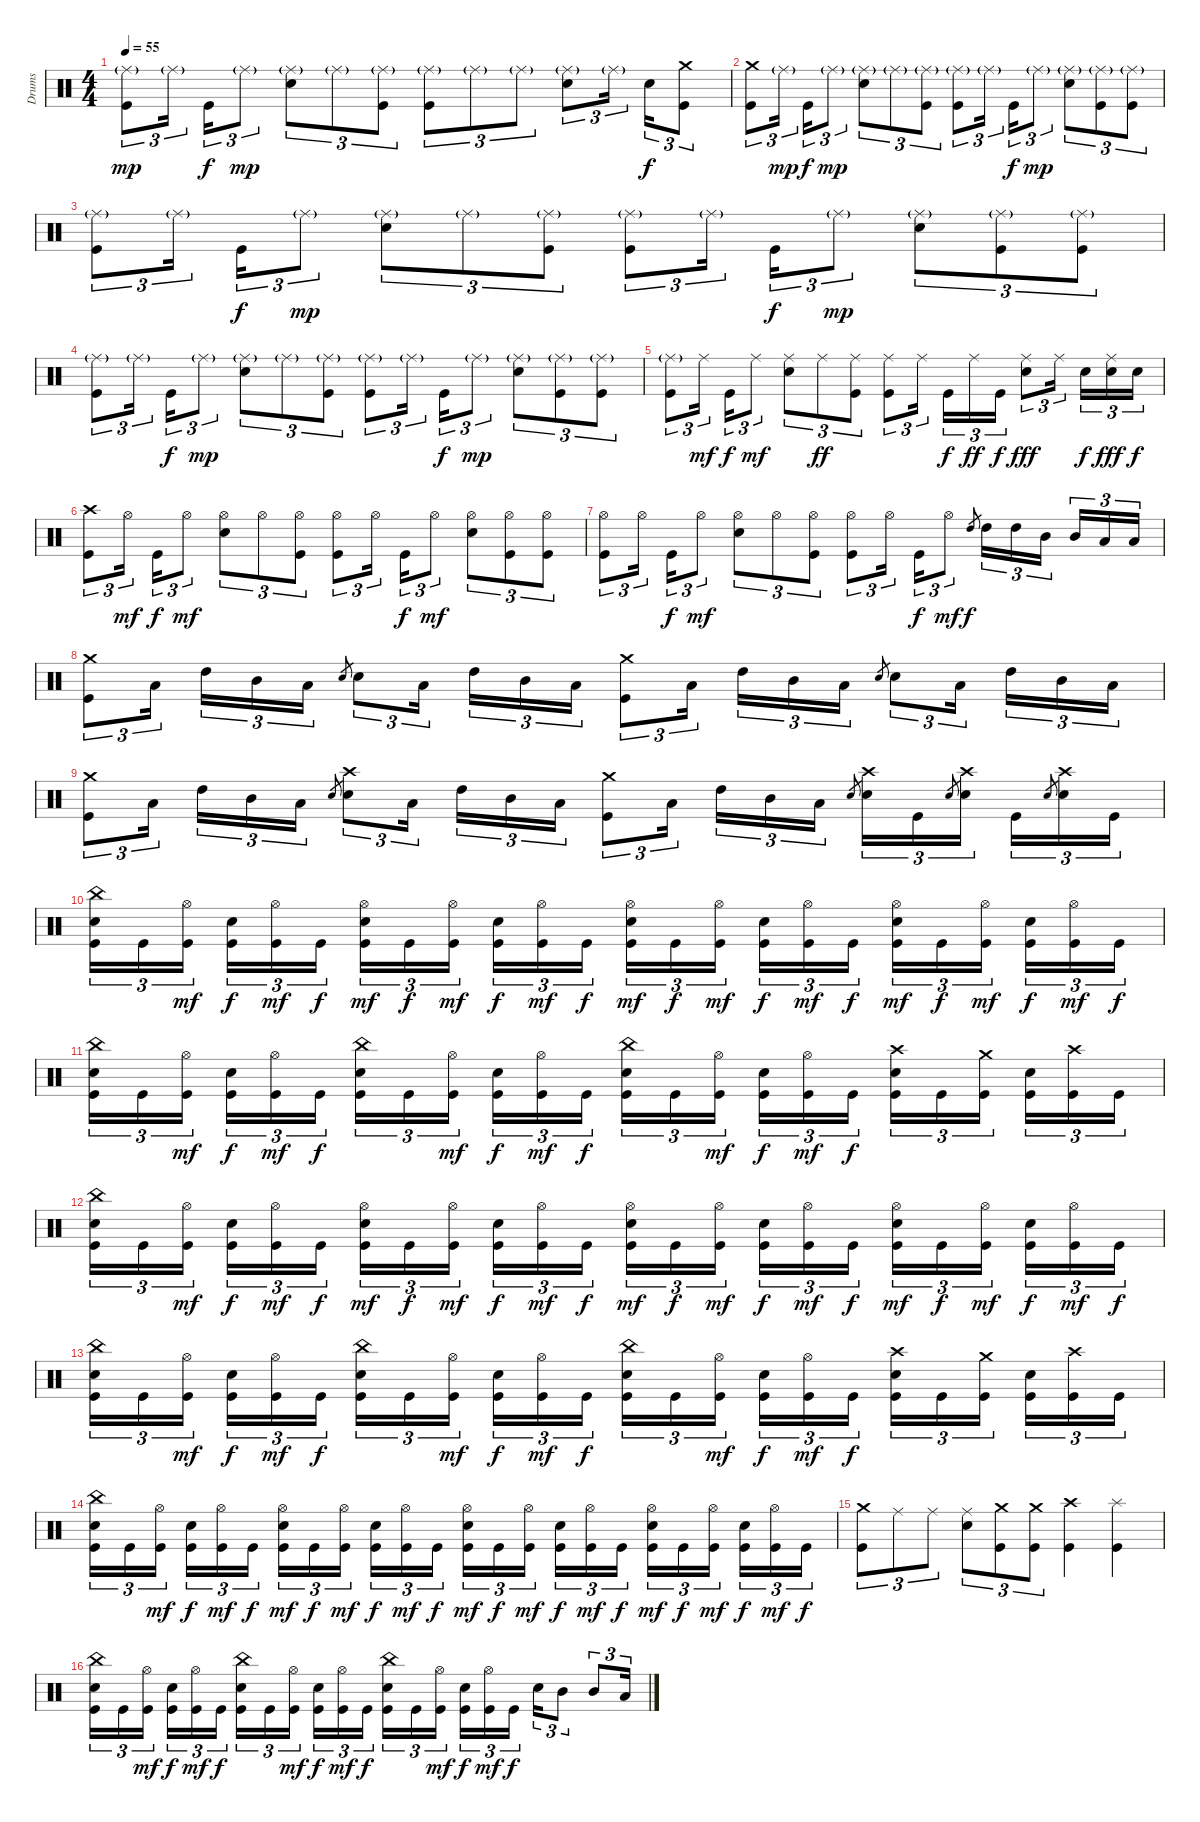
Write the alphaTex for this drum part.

\track ("Drums" "Drums") {instrument percussion}
\staff {score}
\articulation defaults
\ts (4 4)
\tempo 55
\clef neutral
\ks c
("Ride (middle)"{g} "Kick (hit)").8{tu (3 2) dy mp} "Ride (middle)"{g}.16{tu (3 2)} "Kick (hit)".16{tu (3 2) dy f} "Ride (middle)"{g}.8{tu (3 2) dy mp} ("Ride (middle)"{g} "Electric Snare (hit)").8{tu (3 2)} "Ride (middle)"{g}.8{tu (3 2)} ("Ride (middle)"{g} "Kick (hit)").8{tu (3 2)} ("Ride (middle)"{g} "Kick (hit)").8{tu (3 2)} "Ride (middle)"{g}.8{tu (3 2)} "Ride (middle)"{g}.8{tu (3 2)} ("Ride (middle)"{g} "Electric Snare (hit)").8{tu (3 2)} "Ride (middle)"{g}.16{tu (3 2)} "Electric Snare (hit)".16{tu (3 2) dy f} ("Crash medium (hit)" "Kick (hit)").8{tu (3 2)} |
("Crash medium (hit)" "Kick (hit)").8{tu (3 2)} "Ride (middle)"{g}.16{tu (3 2) dy mp} "Kick (hit)".16{tu (3 2) dy f} "Ride (middle)"{g}.8{tu (3 2) dy mp} ("Ride (middle)"{g} "Electric Snare (hit)").8{tu (3 2)} "Ride (middle)"{g}.8{tu (3 2)} ("Ride (middle)"{g} "Kick (hit)").8{tu (3 2)} ("Ride (middle)"{g} "Kick (hit)").8{tu (3 2)} "Ride (middle)"{g}.16{tu (3 2)} "Kick (hit)".16{tu (3 2) dy f} "Ride (middle)"{g}.8{tu (3 2) dy mp} ("Ride (middle)"{g} "Electric Snare (hit)").8{tu (3 2)} ("Ride (middle)"{g} "Kick (hit)").8{tu (3 2)} ("Ride (middle)"{g} "Kick (hit)").8{tu (3 2)} |
("Ride (middle)"{g} "Kick (hit)").8{tu (3 2)} "Ride (middle)"{g}.16{tu (3 2)} "Kick (hit)".16{tu (3 2) dy f} "Ride (middle)"{g}.8{tu (3 2) dy mp} ("Ride (middle)"{g} "Electric Snare (hit)").8{tu (3 2)} "Ride (middle)"{g}.8{tu (3 2)} ("Ride (middle)"{g} "Kick (hit)").8{tu (3 2)} ("Ride (middle)"{g} "Kick (hit)").8{tu (3 2)} "Ride (middle)"{g}.16{tu (3 2)} "Kick (hit)".16{tu (3 2) dy f} "Ride (middle)"{g}.8{tu (3 2) dy mp} ("Ride (middle)"{g} "Electric Snare (hit)").8{tu (3 2)} ("Ride (middle)"{g} "Kick (hit)").8{tu (3 2)} ("Ride (middle)"{g} "Kick (hit)").8{tu (3 2)} |
("Ride (middle)"{g} "Kick (hit)").8{tu (3 2)} "Ride (middle)"{g}.16{tu (3 2)} "Kick (hit)".16{tu (3 2) dy f} "Ride (middle)"{g}.8{tu (3 2) dy mp} ("Ride (middle)"{g} "Electric Snare (hit)").8{tu (3 2)} "Ride (middle)"{g}.8{tu (3 2)} ("Ride (middle)"{g} "Kick (hit)").8{tu (3 2)} ("Ride (middle)"{g} "Kick (hit)").8{tu (3 2)} "Ride (middle)"{g}.16{tu (3 2)} "Kick (hit)".16{tu (3 2) dy f} "Ride (middle)"{g}.8{tu (3 2) dy mp} ("Ride (middle)"{g} "Electric Snare (hit)").8{tu (3 2)} ("Ride (middle)"{g} "Kick (hit)").8{tu (3 2)} ("Ride (middle)"{g} "Kick (hit)").8{tu (3 2)} |
("Ride (middle)"{g} "Kick (hit)").8{tu (3 2)} "Ride (middle)".16{tu (3 2) dy mf} "Kick (hit)".16{tu (3 2) dy f} "Ride (middle)".8{tu (3 2) dy mf} ("Ride (middle)" "Electric Snare (hit)").8{tu (3 2)} "Ride (middle)".8{tu (3 2) dy ff} ("Ride (middle)" "Kick (hit)").8{tu (3 2)} ("Ride (middle)" "Kick (hit)").8{tu (3 2)} "Ride (middle)".16{tu (3 2)} "Kick (hit)".16{tu (3 2) dy f} "Ride (middle)".16{tu (3 2) dy ff} "Kick (hit)".16{tu (3 2) dy f} ("Ride (middle)" "Electric Snare (hit)").8{tu (3 2) dy fff} "Ride (middle)".16{tu (3 2)} "Electric Snare (hit)".16{tu (3 2) dy f} ("Ride (middle)" "Electric Snare (hit)").16{tu (3 2) dy fff} "Electric Snare (hit)".16{tu (3 2) dy f} |
("Crash high (hit)" "Kick (hit)").8{tu (3 2)} "Hi-Hat (open)".16{tu (3 2) dy mf} "Kick (hit)".16{tu (3 2) dy f} "Hi-Hat (open)".8{tu (3 2) dy mf} ("Hi-Hat (open)" "Electric Snare (hit)").8{tu (3 2)} "Hi-Hat (open)".8{tu (3 2)} ("Hi-Hat (open)" "Kick (hit)").8{tu (3 2)} ("Hi-Hat (open)" "Kick (hit)").8{tu (3 2)} "Hi-Hat (open)".16{tu (3 2)} "Kick (hit)".16{tu (3 2) dy f} "Hi-Hat (open)".8{tu (3 2) dy mf} ("Hi-Hat (open)" "Electric Snare (hit)").8{tu (3 2)} ("Hi-Hat (open)" "Kick (hit)").8{tu (3 2)} ("Hi-Hat (open)" "Kick (hit)").8{tu (3 2)} |
("Hi-Hat (open)" "Kick (hit)").8{tu (3 2)} "Hi-Hat (open)".16{tu (3 2)} "Kick (hit)".16{tu (3 2) dy f} "Hi-Hat (open)".8{tu (3 2) dy mf} ("Hi-Hat (open)" "Electric Snare (hit)").8{tu (3 2)} "Hi-Hat (open)".8{tu (3 2)} ("Hi-Hat (open)" "Kick (hit)").8{tu (3 2)} ("Hi-Hat (open)" "Kick (hit)").8{tu (3 2)} "Hi-Hat (open)".16{tu (3 2)} "Kick (hit)".16{tu (3 2) dy f} "Hi-Hat (open)".8{tu (3 2) dy mf} "High Tom (hit)".8{gr dy f} "High Tom (hit)".16{tu (3 2)} "High Tom (hit)".16{tu (3 2)} "Mid Tom (hit)".16{tu (3 2)} "Mid Tom (hit)".16{tu (3 2)} "Low Tom (hit)".16{tu (3 2)} "Low Tom (hit)".16{tu (3 2)} |
("Crash medium (hit)" "Kick (hit)").8{tu (3 2)} "Low Tom (hit)".16{tu (3 2)} "High Tom (hit)".16{tu (3 2)} "Mid Tom (hit)".16{tu (3 2)} "Low Tom (hit)".16{tu (3 2)} "Electric Snare (hit)".8{gr} "Electric Snare (hit)".8{tu (3 2)} "Low Tom (hit)".16{tu (3 2)} "High Tom (hit)".16{tu (3 2)} "Mid Tom (hit)".16{tu (3 2)} "Low Tom (hit)".16{tu (3 2)} ("Crash medium (hit)" "Kick (hit)").8{tu (3 2)} "Low Tom (hit)".16{tu (3 2)} "High Tom (hit)".16{tu (3 2)} "Mid Tom (hit)".16{tu (3 2)} "Low Tom (hit)".16{tu (3 2)} "Electric Snare (hit)".8{gr} "Electric Snare (hit)".8{tu (3 2)} "Low Tom (hit)".16{tu (3 2)} "High Tom (hit)".16{tu (3 2)} "Mid Tom (hit)".16{tu (3 2)} "Low Tom (hit)".16{tu (3 2)} |
("Crash medium (hit)" "Kick (hit)").8{tu (3 2)} "Low Tom (hit)".16{tu (3 2)} "High Tom (hit)".16{tu (3 2)} "Mid Tom (hit)".16{tu (3 2)} "Low Tom (hit)".16{tu (3 2)} "Electric Snare (hit)".8{gr} ("Crash high (hit)" "Electric Snare (hit)").8{tu (3 2)} "Low Tom (hit)".16{tu (3 2)} "High Tom (hit)".16{tu (3 2)} "Mid Tom (hit)".16{tu (3 2)} "Low Tom (hit)".16{tu (3 2)} ("Crash medium (hit)" "Kick (hit)").8{tu (3 2)} "Low Tom (hit)".16{tu (3 2)} "High Tom (hit)".16{tu (3 2)} "Mid Tom (hit)".16{tu (3 2)} "Low Tom (hit)".16{tu (3 2)} "Electric Snare (hit)".8{gr} ("Crash high (hit)" "Electric Snare (hit)").16{tu (3 2)} "Kick (hit)".16{tu (3 2)} "Electric Snare (hit)".8{gr} ("Crash high (hit)" "Electric Snare (hit)").16{tu (3 2)} "Kick (hit)".16{tu (3 2)} "Electric Snare (hit)".8{gr} ("Crash high (hit)" "Electric Snare (hit)").16{tu (3 2)} "Kick (hit)".16{tu (3 2)} |
("China (hit)" "Electric Snare (hit)" "Kick (hit)").16{tu (3 2)} "Kick (hit)".16{tu (3 2)} ("Hi-Hat (open)" "Kick (hit)").16{tu (3 2) dy mf} ("Electric Snare (hit)" "Kick (hit)").16{tu (3 2) dy f} ("Hi-Hat (open)" "Kick (hit)").16{tu (3 2) dy mf} "Kick (hit)".16{tu (3 2) dy f} ("Hi-Hat (open)" "Electric Snare (hit)" "Kick (hit)").16{tu (3 2) dy mf} "Kick (hit)".16{tu (3 2) dy f} ("Hi-Hat (open)" "Kick (hit)").16{tu (3 2) dy mf} ("Electric Snare (hit)" "Kick (hit)").16{tu (3 2) dy f} ("Hi-Hat (open)" "Kick (hit)").16{tu (3 2) dy mf} "Kick (hit)".16{tu (3 2) dy f} ("Hi-Hat (open)" "Electric Snare (hit)" "Kick (hit)").16{tu (3 2) dy mf} "Kick (hit)".16{tu (3 2) dy f} ("Hi-Hat (open)" "Kick (hit)").16{tu (3 2) dy mf} ("Electric Snare (hit)" "Kick (hit)").16{tu (3 2) dy f} ("Hi-Hat (open)" "Kick (hit)").16{tu (3 2) dy mf} "Kick (hit)".16{tu (3 2) dy f} ("Hi-Hat (open)" "Electric Snare (hit)" "Kick (hit)").16{tu (3 2) dy mf} "Kick (hit)".16{tu (3 2) dy f} ("Hi-Hat (open)" "Kick (hit)").16{tu (3 2) dy mf} ("Electric Snare (hit)" "Kick (hit)").16{tu (3 2) dy f} ("Hi-Hat (open)" "Kick (hit)").16{tu (3 2) dy mf} "Kick (hit)".16{tu (3 2) dy f} |
("China (hit)" "Electric Snare (hit)" "Kick (hit)").16{tu (3 2)} "Kick (hit)".16{tu (3 2)} ("Hi-Hat (open)" "Kick (hit)").16{tu (3 2) dy mf} ("Electric Snare (hit)" "Kick (hit)").16{tu (3 2) dy f} ("Hi-Hat (open)" "Kick (hit)").16{tu (3 2) dy mf} "Kick (hit)".16{tu (3 2) dy f} ("China (hit)" "Electric Snare (hit)" "Kick (hit)").16{tu (3 2)} "Kick (hit)".16{tu (3 2)} ("Hi-Hat (open)" "Kick (hit)").16{tu (3 2) dy mf} ("Electric Snare (hit)" "Kick (hit)").16{tu (3 2) dy f} ("Hi-Hat (open)" "Kick (hit)").16{tu (3 2) dy mf} "Kick (hit)".16{tu (3 2) dy f} ("China (hit)" "Electric Snare (hit)" "Kick (hit)").16{tu (3 2)} "Kick (hit)".16{tu (3 2)} ("Hi-Hat (open)" "Kick (hit)").16{tu (3 2) dy mf} ("Electric Snare (hit)" "Kick (hit)").16{tu (3 2) dy f} ("Hi-Hat (open)" "Kick (hit)").16{tu (3 2) dy mf} "Kick (hit)".16{tu (3 2) dy f} ("Crash high (hit)" "Electric Snare (hit)" "Kick (hit)").16{tu (3 2)} "Kick (hit)".16{tu (3 2)} ("Crash medium (hit)" "Kick (hit)").16{tu (3 2)} ("Electric Snare (hit)" "Kick (hit)").16{tu (3 2)} ("Crash high (hit)" "Kick (hit)").16{tu (3 2)} "Kick (hit)".16{tu (3 2)} |
("China (hit)" "Electric Snare (hit)" "Kick (hit)").16{tu (3 2)} "Kick (hit)".16{tu (3 2)} ("Hi-Hat (open)" "Kick (hit)").16{tu (3 2) dy mf} ("Electric Snare (hit)" "Kick (hit)").16{tu (3 2) dy f} ("Hi-Hat (open)" "Kick (hit)").16{tu (3 2) dy mf} "Kick (hit)".16{tu (3 2) dy f} ("Hi-Hat (open)" "Electric Snare (hit)" "Kick (hit)").16{tu (3 2) dy mf} "Kick (hit)".16{tu (3 2) dy f} ("Hi-Hat (open)" "Kick (hit)").16{tu (3 2) dy mf} ("Electric Snare (hit)" "Kick (hit)").16{tu (3 2) dy f} ("Hi-Hat (open)" "Kick (hit)").16{tu (3 2) dy mf} "Kick (hit)".16{tu (3 2) dy f} ("Hi-Hat (open)" "Electric Snare (hit)" "Kick (hit)").16{tu (3 2) dy mf} "Kick (hit)".16{tu (3 2) dy f} ("Hi-Hat (open)" "Kick (hit)").16{tu (3 2) dy mf} ("Electric Snare (hit)" "Kick (hit)").16{tu (3 2) dy f} ("Hi-Hat (open)" "Kick (hit)").16{tu (3 2) dy mf} "Kick (hit)".16{tu (3 2) dy f} ("Hi-Hat (open)" "Electric Snare (hit)" "Kick (hit)").16{tu (3 2) dy mf} "Kick (hit)".16{tu (3 2) dy f} ("Hi-Hat (open)" "Kick (hit)").16{tu (3 2) dy mf} ("Electric Snare (hit)" "Kick (hit)").16{tu (3 2) dy f} ("Hi-Hat (open)" "Kick (hit)").16{tu (3 2) dy mf} "Kick (hit)".16{tu (3 2) dy f} |
("China (hit)" "Electric Snare (hit)" "Kick (hit)").16{tu (3 2)} "Kick (hit)".16{tu (3 2)} ("Hi-Hat (open)" "Kick (hit)").16{tu (3 2) dy mf} ("Electric Snare (hit)" "Kick (hit)").16{tu (3 2) dy f} ("Hi-Hat (open)" "Kick (hit)").16{tu (3 2) dy mf} "Kick (hit)".16{tu (3 2) dy f} ("China (hit)" "Electric Snare (hit)" "Kick (hit)").16{tu (3 2)} "Kick (hit)".16{tu (3 2)} ("Hi-Hat (open)" "Kick (hit)").16{tu (3 2) dy mf} ("Electric Snare (hit)" "Kick (hit)").16{tu (3 2) dy f} ("Hi-Hat (open)" "Kick (hit)").16{tu (3 2) dy mf} "Kick (hit)".16{tu (3 2) dy f} ("China (hit)" "Electric Snare (hit)" "Kick (hit)").16{tu (3 2)} "Kick (hit)".16{tu (3 2)} ("Hi-Hat (open)" "Kick (hit)").16{tu (3 2) dy mf} ("Electric Snare (hit)" "Kick (hit)").16{tu (3 2) dy f} ("Hi-Hat (open)" "Kick (hit)").16{tu (3 2) dy mf} "Kick (hit)".16{tu (3 2) dy f} ("Crash high (hit)" "Electric Snare (hit)" "Kick (hit)").16{tu (3 2)} "Kick (hit)".16{tu (3 2)} ("Crash medium (hit)" "Kick (hit)").16{tu (3 2)} ("Electric Snare (hit)" "Kick (hit)").16{tu (3 2)} ("Crash high (hit)" "Kick (hit)").16{tu (3 2)} "Kick (hit)".16{tu (3 2)} |
("China (hit)" "Electric Snare (hit)" "Kick (hit)").16{tu (3 2)} "Kick (hit)".16{tu (3 2)} ("Hi-Hat (open)" "Kick (hit)").16{tu (3 2) dy mf} ("Electric Snare (hit)" "Kick (hit)").16{tu (3 2) dy f} ("Hi-Hat (open)" "Kick (hit)").16{tu (3 2) dy mf} "Kick (hit)".16{tu (3 2) dy f} ("Hi-Hat (open)" "Electric Snare (hit)" "Kick (hit)").16{tu (3 2) dy mf} "Kick (hit)".16{tu (3 2) dy f} ("Hi-Hat (open)" "Kick (hit)").16{tu (3 2) dy mf} ("Electric Snare (hit)" "Kick (hit)").16{tu (3 2) dy f} ("Hi-Hat (open)" "Kick (hit)").16{tu (3 2) dy mf} "Kick (hit)".16{tu (3 2) dy f} ("Hi-Hat (open)" "Electric Snare (hit)" "Kick (hit)").16{tu (3 2) dy mf} "Kick (hit)".16{tu (3 2) dy f} ("Hi-Hat (open)" "Kick (hit)").16{tu (3 2) dy mf} ("Electric Snare (hit)" "Kick (hit)").16{tu (3 2) dy f} ("Hi-Hat (open)" "Kick (hit)").16{tu (3 2) dy mf} "Kick (hit)".16{tu (3 2) dy f} ("Hi-Hat (open)" "Electric Snare (hit)" "Kick (hit)").16{tu (3 2) dy mf} "Kick (hit)".16{tu (3 2) dy f} ("Hi-Hat (open)" "Kick (hit)").16{tu (3 2) dy mf} ("Electric Snare (hit)" "Kick (hit)").16{tu (3 2) dy f} ("Hi-Hat (open)" "Kick (hit)").16{tu (3 2) dy mf} "Kick (hit)".16{tu (3 2) dy f} |
("Crash medium (hit)" "Kick (hit)").8{tu (3 2)} "Ride (middle)".8{tu (3 2)} "Ride (middle)".8{tu (3 2)} ("Ride (middle)" "Electric Snare (hit)").8{tu (3 2)} ("Crash medium (hit)" "Kick (hit)").8{tu (3 2)} ("Crash medium (hit)" "Kick (hit)").8{tu (3 2)} ("Crash high (hit)" "Kick (hit)").4 ("Splash (hit)" "Kick (hit)").4 |
("China (hit)" "Electric Snare (hit)" "Kick (hit)").16{tu (3 2)} "Kick (hit)".16{tu (3 2)} ("Hi-Hat (open)" "Kick (hit)").16{tu (3 2) dy mf} ("Electric Snare (hit)" "Kick (hit)").16{tu (3 2) dy f} ("Hi-Hat (open)" "Kick (hit)").16{tu (3 2) dy mf} "Kick (hit)".16{tu (3 2) dy f} ("China (hit)" "Electric Snare (hit)" "Kick (hit)").16{tu (3 2)} "Kick (hit)".16{tu (3 2)} ("Hi-Hat (open)" "Kick (hit)").16{tu (3 2) dy mf} ("Electric Snare (hit)" "Kick (hit)").16{tu (3 2) dy f} ("Hi-Hat (open)" "Kick (hit)").16{tu (3 2) dy mf} "Kick (hit)".16{tu (3 2) dy f} ("China (hit)" "Electric Snare (hit)" "Kick (hit)").16{tu (3 2)} "Kick (hit)".16{tu (3 2)} ("Hi-Hat (open)" "Kick (hit)").16{tu (3 2) dy mf} ("Electric Snare (hit)" "Kick (hit)").16{tu (3 2) dy f} ("Hi-Hat (open)" "Kick (hit)").16{tu (3 2) dy mf} "Kick (hit)".16{tu (3 2) dy f} "Electric Snare (hit)".16{tu (3 2)} "Mid Tom (hit)".8{tu (3 2)} "Mid Tom (hit)".8{tu (3 2)} "Low Tom (hit)".16{tu (3 2)}
